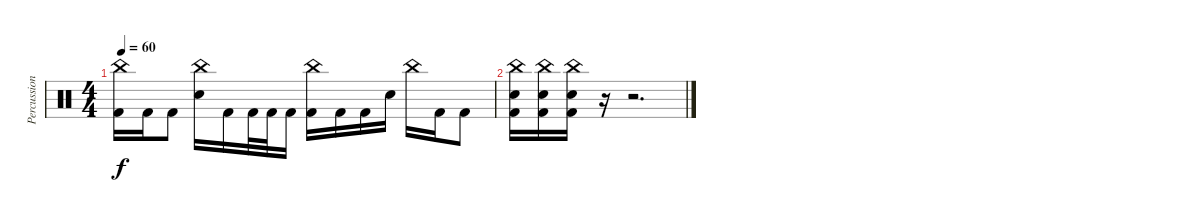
\track ("Percussion" "Percussion") {instrument percussion}
\staff {score}
\articulation defaults
\ts (4 4)
\tempo 60
\clef neutral
\ks c
("China (hit)" "Kick (hit) 2").16{dy f} "Kick (hit) 2".16 "Kick (hit) 2".8 ("China (hit)" "Electric Snare (hit)").16 "Kick (hit) 2".16 "Kick (hit) 2".32 "Kick (hit) 2".32 "Kick (hit) 2".16 ("China (hit)" "Kick (hit) 2").16 "Kick (hit) 2".16 "Kick (hit) 2".16 "Electric Snare (hit)".16 "China (hit)".16 "Kick (hit) 2".16 "Kick (hit) 2".8 |
("China (hit)" "Electric Snare (hit)" "Kick (hit) 2").16 ("China (hit)" "Electric Snare (hit)" "Kick (hit) 2").16 ("China (hit)" "Electric Snare (hit)" "Kick (hit) 2").16 r.16 r.2{d}
